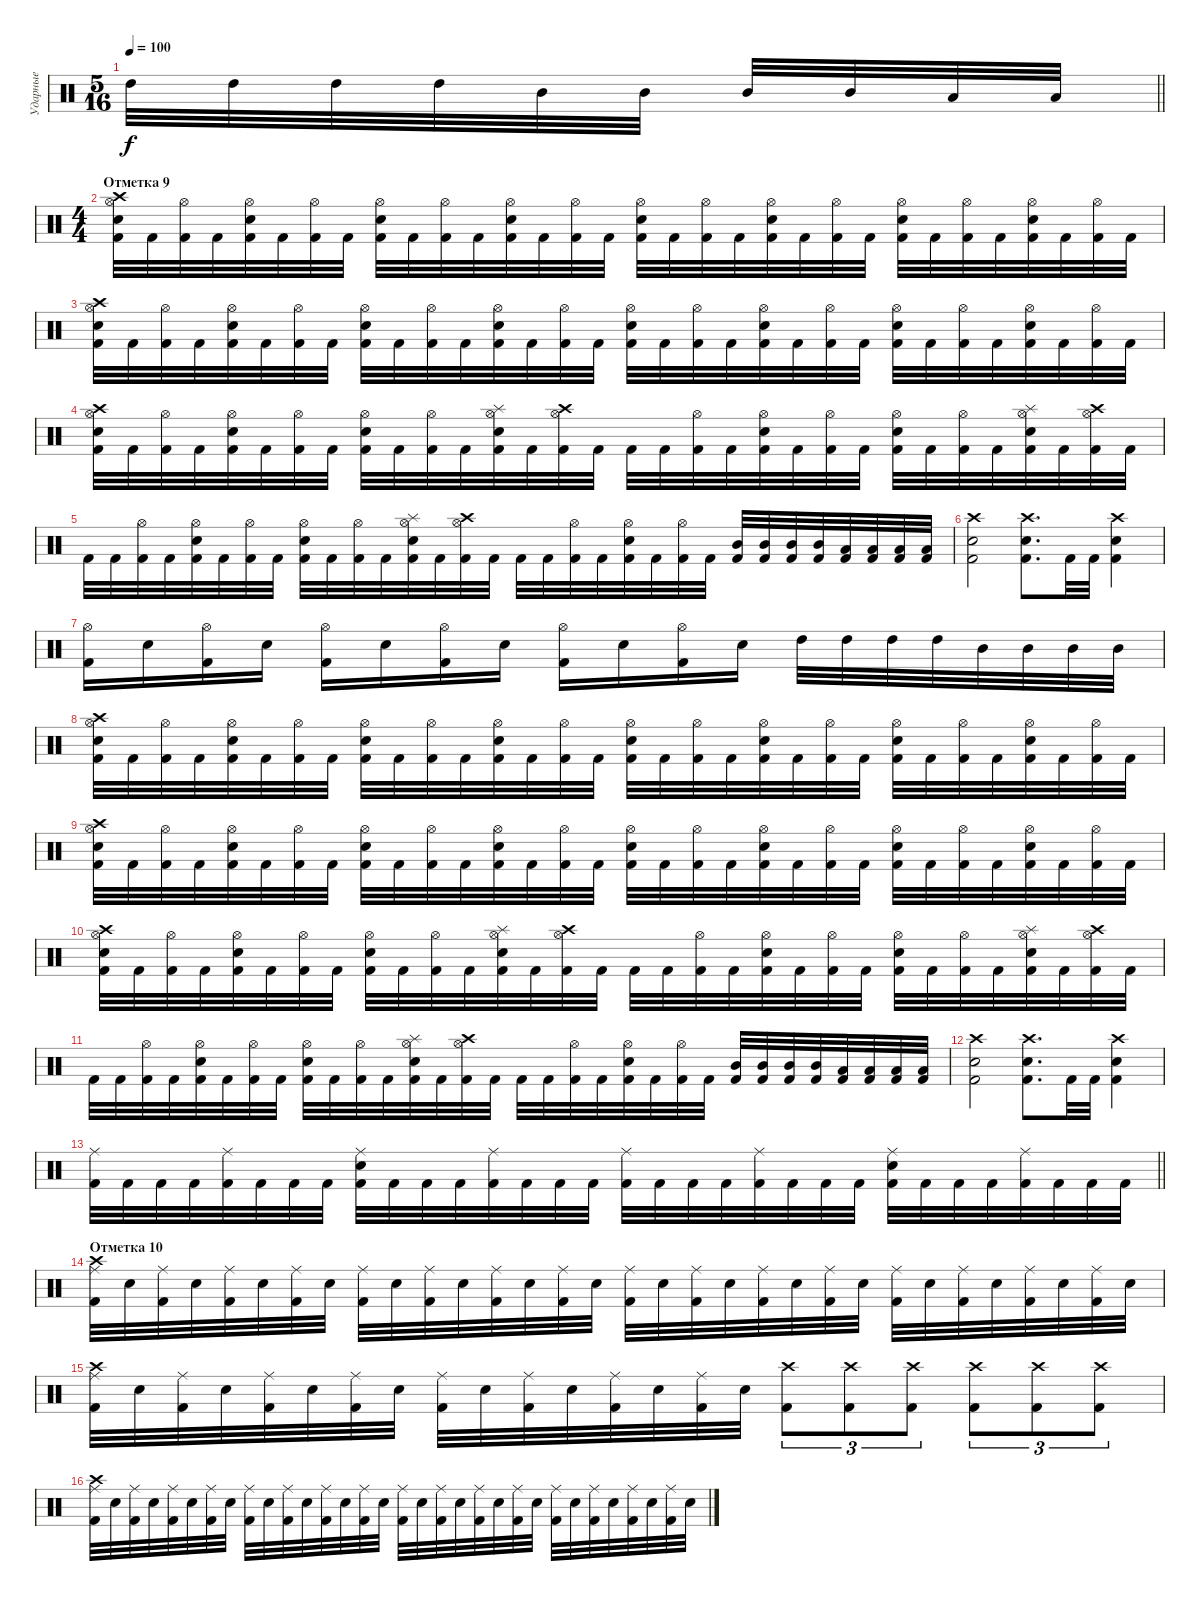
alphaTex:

\track ("Ударные" "Ударные") {instrument percussion}
\staff {score}
\articulation defaults
\ts (5 16)
\tempo 100
\clef neutral
\barLineRight lightlight
\ks c "High Tom (hit)".32{dy f} "High Tom (hit)".32 "High Tom (hit)".32 "High Tom (hit)".32 "Mid Tom (hit)".32 "Mid Tom (hit)".32 "Mid Tom (hit)".32 "Mid Tom (hit)".32 "Low Tom (hit)".32 "Low Tom (hit)".32
|
\ts (4 4)
\section ("" "Отметка 9")
("Kick (hit) 2" "Electric Snare (hit)" "Hi-Hat (open)" "Crash high (hit)").32 "Kick (hit) 2".32 ("Kick (hit) 2" "Hi-Hat (open)").32 "Kick (hit) 2".32 ("Kick (hit) 2" "Electric Snare (hit)" "Hi-Hat (open)").32 "Kick (hit) 2".32 ("Kick (hit) 2" "Hi-Hat (open)").32 "Kick (hit) 2".32 ("Kick (hit) 2" "Electric Snare (hit)" "Hi-Hat (open)").32 "Kick (hit) 2".32 ("Kick (hit) 2" "Hi-Hat (open)").32 "Kick (hit) 2".32 ("Kick (hit) 2" "Electric Snare (hit)" "Hi-Hat (open)").32 "Kick (hit) 2".32 ("Kick (hit) 2" "Hi-Hat (open)").32 "Kick (hit) 2".32 ("Kick (hit) 2" "Electric Snare (hit)" "Hi-Hat (open)").32 "Kick (hit) 2".32 ("Kick (hit) 2" "Hi-Hat (open)").32 "Kick (hit) 2".32 ("Kick (hit) 2" "Electric Snare (hit)" "Hi-Hat (open)").32 "Kick (hit) 2".32 ("Kick (hit) 2" "Hi-Hat (open)").32 "Kick (hit) 2".32 ("Kick (hit) 2" "Electric Snare (hit)" "Hi-Hat (open)").32 "Kick (hit) 2".32 ("Kick (hit) 2" "Hi-Hat (open)").32 "Kick (hit) 2".32 ("Kick (hit) 2" "Electric Snare (hit)" "Hi-Hat (open)").32 "Kick (hit) 2".32 ("Kick (hit) 2" "Hi-Hat (open)").32 "Kick (hit) 2".32 |
("Kick (hit) 2" "Electric Snare (hit)" "Hi-Hat (open)" "Crash high (hit)").32 "Kick (hit) 2".32 ("Kick (hit) 2" "Hi-Hat (open)").32 "Kick (hit) 2".32 ("Kick (hit) 2" "Electric Snare (hit)" "Hi-Hat (open)").32 "Kick (hit) 2".32 ("Kick (hit) 2" "Hi-Hat (open)").32 "Kick (hit) 2".32 ("Kick (hit) 2" "Electric Snare (hit)" "Hi-Hat (open)").32 "Kick (hit) 2".32 ("Kick (hit) 2" "Hi-Hat (open)").32 "Kick (hit) 2".32 ("Kick (hit) 2" "Electric Snare (hit)" "Hi-Hat (open)").32 "Kick (hit) 2".32 ("Kick (hit) 2" "Hi-Hat (open)").32 "Kick (hit) 2".32 ("Kick (hit) 2" "Electric Snare (hit)" "Hi-Hat (open)").32 "Kick (hit) 2".32 ("Kick (hit) 2" "Hi-Hat (open)").32 "Kick (hit) 2".32 ("Kick (hit) 2" "Electric Snare (hit)" "Hi-Hat (open)").32 "Kick (hit) 2".32 ("Kick (hit) 2" "Hi-Hat (open)").32 "Kick (hit) 2".32 ("Kick (hit) 2" "Electric Snare (hit)" "Hi-Hat (open)").32 "Kick (hit) 2".32 ("Kick (hit) 2" "Hi-Hat (open)").32 "Kick (hit) 2".32 ("Kick (hit) 2" "Electric Snare (hit)" "Hi-Hat (open)").32 "Kick (hit) 2".32 ("Kick (hit) 2" "Hi-Hat (open)").32 "Kick (hit) 2".32 |
("Kick (hit) 2" "Electric Snare (hit)" "Hi-Hat (open)" "Crash high (hit)").32 "Kick (hit) 2".32 ("Kick (hit) 2" "Hi-Hat (open)").32 "Kick (hit) 2".32 ("Kick (hit) 2" "Electric Snare (hit)" "Hi-Hat (open)").32 "Kick (hit) 2".32 ("Kick (hit) 2" "Hi-Hat (open)").32 "Kick (hit) 2".32 ("Kick (hit) 2" "Electric Snare (hit)" "Hi-Hat (open)").32 "Kick (hit) 2".32 ("Kick (hit) 2" "Hi-Hat (open)").32 "Kick (hit) 2".32 ("Kick (hit) 2" "Electric Snare (hit)" "Hi-Hat (open)" "Splash (hit)").32 "Kick (hit) 2".32 ("Kick (hit) 2" "Hi-Hat (open)" "Crash high (hit)").32 "Kick (hit) 2".32 "Kick (hit) 2".32 "Kick (hit) 2".32 ("Kick (hit) 2" "Hi-Hat (open)").32 "Kick (hit) 2".32 ("Kick (hit) 2" "Electric Snare (hit)" "Hi-Hat (open)").32 "Kick (hit) 2".32 ("Kick (hit) 2" "Hi-Hat (open)").32 "Kick (hit) 2".32 ("Kick (hit) 2" "Electric Snare (hit)" "Hi-Hat (open)").32 "Kick (hit) 2".32 ("Kick (hit) 2" "Hi-Hat (open)").32 "Kick (hit) 2".32 ("Kick (hit) 2" "Electric Snare (hit)" "Hi-Hat (open)" "Splash (hit)").32 "Kick (hit) 2".32 ("Kick (hit) 2" "Hi-Hat (open)" "Crash high (hit)").32 "Kick (hit) 2".32 |
"Kick (hit) 2".32 "Kick (hit) 2".32 ("Kick (hit) 2" "Hi-Hat (open)").32 "Kick (hit) 2".32 ("Kick (hit) 2" "Electric Snare (hit)" "Hi-Hat (open)").32 "Kick (hit) 2".32 ("Kick (hit) 2" "Hi-Hat (open)").32 "Kick (hit) 2".32 ("Kick (hit) 2" "Electric Snare (hit)" "Hi-Hat (open)").32 "Kick (hit) 2".32 ("Kick (hit) 2" "Hi-Hat (open)").32 "Kick (hit) 2".32 ("Kick (hit) 2" "Electric Snare (hit)" "Hi-Hat (open)" "Splash (hit)").32 "Kick (hit) 2".32 ("Kick (hit) 2" "Hi-Hat (open)" "Crash high (hit)").32 "Kick (hit) 2".32 "Kick (hit) 2".32 "Kick (hit) 2".32 ("Kick (hit) 2" "Hi-Hat (open)").32 "Kick (hit) 2".32 ("Kick (hit) 2" "Electric Snare (hit)" "Hi-Hat (open)").32 "Kick (hit) 2".32 ("Kick (hit) 2" "Hi-Hat (open)").32 "Kick (hit) 2".32 ("Kick (hit) 2" "Mid Tom (hit)").32 ("Kick (hit) 2" "Mid Tom (hit)").32 ("Kick (hit) 2" "Mid Tom (hit)").32 ("Kick (hit) 2" "Mid Tom (hit)").32 ("Kick (hit) 2" "Low Tom (hit)").32 ("Kick (hit) 2" "Low Tom (hit)").32 ("Kick (hit) 2" "Low Tom (hit)").32 ("Kick (hit) 2" "Low Tom (hit)").32 |
("Crash high (hit)" "Electric Snare (hit)" "Kick (hit) 2").2 ("Crash high (hit)" "Electric Snare (hit)" "Kick (hit) 2").8{d} "Kick (hit) 2".32 "Kick (hit) 2".32 ("Electric Snare (hit)" "Crash high (hit)" "Kick (hit) 2").4 |
("Hi-Hat (open)" "Kick (hit) 2").16 "Electric Snare (hit)".16 ("Hi-Hat (open)" "Kick (hit) 2").16 "Electric Snare (hit)".16 ("Hi-Hat (open)" "Kick (hit) 2").16 "Electric Snare (hit)".16 ("Hi-Hat (open)" "Kick (hit) 2").16 "Electric Snare (hit)".16 ("Hi-Hat (open)" "Kick (hit) 2").16 "Electric Snare (hit)".16 ("Hi-Hat (open)" "Kick (hit) 2").16 "Electric Snare (hit)".16 "High Tom (hit)".32 "High Tom (hit)".32 "High Tom (hit)".32 "High Tom (hit)".32 "Mid Tom (hit)".32 "Mid Tom (hit)".32 "Mid Tom (hit)".32 "Mid Tom (hit)".32 |
("Kick (hit) 2" "Electric Snare (hit)" "Hi-Hat (open)" "Crash high (hit)").32 "Kick (hit) 2".32 ("Kick (hit) 2" "Hi-Hat (open)").32 "Kick (hit) 2".32 ("Kick (hit) 2" "Electric Snare (hit)" "Hi-Hat (open)").32 "Kick (hit) 2".32 ("Kick (hit) 2" "Hi-Hat (open)").32 "Kick (hit) 2".32 ("Kick (hit) 2" "Electric Snare (hit)" "Hi-Hat (open)").32 "Kick (hit) 2".32 ("Kick (hit) 2" "Hi-Hat (open)").32 "Kick (hit) 2".32 ("Kick (hit) 2" "Electric Snare (hit)" "Hi-Hat (open)").32 "Kick (hit) 2".32 ("Kick (hit) 2" "Hi-Hat (open)").32 "Kick (hit) 2".32 ("Kick (hit) 2" "Electric Snare (hit)" "Hi-Hat (open)").32 "Kick (hit) 2".32 ("Kick (hit) 2" "Hi-Hat (open)").32 "Kick (hit) 2".32 ("Kick (hit) 2" "Electric Snare (hit)" "Hi-Hat (open)").32 "Kick (hit) 2".32 ("Kick (hit) 2" "Hi-Hat (open)").32 "Kick (hit) 2".32 ("Kick (hit) 2" "Electric Snare (hit)" "Hi-Hat (open)").32 "Kick (hit) 2".32 ("Kick (hit) 2" "Hi-Hat (open)").32 "Kick (hit) 2".32 ("Kick (hit) 2" "Electric Snare (hit)" "Hi-Hat (open)").32 "Kick (hit) 2".32 ("Kick (hit) 2" "Hi-Hat (open)").32 "Kick (hit) 2".32 |
("Kick (hit) 2" "Electric Snare (hit)" "Hi-Hat (open)" "Crash high (hit)").32 "Kick (hit) 2".32 ("Kick (hit) 2" "Hi-Hat (open)").32 "Kick (hit) 2".32 ("Kick (hit) 2" "Electric Snare (hit)" "Hi-Hat (open)").32 "Kick (hit) 2".32 ("Kick (hit) 2" "Hi-Hat (open)").32 "Kick (hit) 2".32 ("Kick (hit) 2" "Electric Snare (hit)" "Hi-Hat (open)").32 "Kick (hit) 2".32 ("Kick (hit) 2" "Hi-Hat (open)").32 "Kick (hit) 2".32 ("Kick (hit) 2" "Electric Snare (hit)" "Hi-Hat (open)").32 "Kick (hit) 2".32 ("Kick (hit) 2" "Hi-Hat (open)").32 "Kick (hit) 2".32 ("Kick (hit) 2" "Electric Snare (hit)" "Hi-Hat (open)").32 "Kick (hit) 2".32 ("Kick (hit) 2" "Hi-Hat (open)").32 "Kick (hit) 2".32 ("Kick (hit) 2" "Electric Snare (hit)" "Hi-Hat (open)").32 "Kick (hit) 2".32 ("Kick (hit) 2" "Hi-Hat (open)").32 "Kick (hit) 2".32 ("Kick (hit) 2" "Electric Snare (hit)" "Hi-Hat (open)").32 "Kick (hit) 2".32 ("Kick (hit) 2" "Hi-Hat (open)").32 "Kick (hit) 2".32 ("Kick (hit) 2" "Electric Snare (hit)" "Hi-Hat (open)").32 "Kick (hit) 2".32 ("Kick (hit) 2" "Hi-Hat (open)").32 "Kick (hit) 2".32 |
("Kick (hit) 2" "Electric Snare (hit)" "Hi-Hat (open)" "Crash high (hit)").32 "Kick (hit) 2".32 ("Kick (hit) 2" "Hi-Hat (open)").32 "Kick (hit) 2".32 ("Kick (hit) 2" "Electric Snare (hit)" "Hi-Hat (open)").32 "Kick (hit) 2".32 ("Kick (hit) 2" "Hi-Hat (open)").32 "Kick (hit) 2".32 ("Kick (hit) 2" "Electric Snare (hit)" "Hi-Hat (open)").32 "Kick (hit) 2".32 ("Kick (hit) 2" "Hi-Hat (open)").32 "Kick (hit) 2".32 ("Kick (hit) 2" "Electric Snare (hit)" "Hi-Hat (open)" "Splash (hit)").32 "Kick (hit) 2".32 ("Kick (hit) 2" "Hi-Hat (open)" "Crash high (hit)").32 "Kick (hit) 2".32 "Kick (hit) 2".32 "Kick (hit) 2".32 ("Kick (hit) 2" "Hi-Hat (open)").32 "Kick (hit) 2".32 ("Kick (hit) 2" "Electric Snare (hit)" "Hi-Hat (open)").32 "Kick (hit) 2".32 ("Kick (hit) 2" "Hi-Hat (open)").32 "Kick (hit) 2".32 ("Kick (hit) 2" "Electric Snare (hit)" "Hi-Hat (open)").32 "Kick (hit) 2".32 ("Kick (hit) 2" "Hi-Hat (open)").32 "Kick (hit) 2".32 ("Kick (hit) 2" "Electric Snare (hit)" "Hi-Hat (open)" "Splash (hit)").32 "Kick (hit) 2".32 ("Kick (hit) 2" "Hi-Hat (open)" "Crash high (hit)").32 "Kick (hit) 2".32 |
"Kick (hit) 2".32 "Kick (hit) 2".32 ("Kick (hit) 2" "Hi-Hat (open)").32 "Kick (hit) 2".32 ("Kick (hit) 2" "Electric Snare (hit)" "Hi-Hat (open)").32 "Kick (hit) 2".32 ("Kick (hit) 2" "Hi-Hat (open)").32 "Kick (hit) 2".32 ("Kick (hit) 2" "Electric Snare (hit)" "Hi-Hat (open)").32 "Kick (hit) 2".32 ("Kick (hit) 2" "Hi-Hat (open)").32 "Kick (hit) 2".32 ("Kick (hit) 2" "Electric Snare (hit)" "Hi-Hat (open)" "Splash (hit)").32 "Kick (hit) 2".32 ("Kick (hit) 2" "Hi-Hat (open)" "Crash high (hit)").32 "Kick (hit) 2".32 "Kick (hit) 2".32 "Kick (hit) 2".32 ("Kick (hit) 2" "Hi-Hat (open)").32 "Kick (hit) 2".32 ("Kick (hit) 2" "Electric Snare (hit)" "Hi-Hat (open)").32 "Kick (hit) 2".32 ("Kick (hit) 2" "Hi-Hat (open)").32 "Kick (hit) 2".32 ("Kick (hit) 2" "Mid Tom (hit)").32 ("Kick (hit) 2" "Mid Tom (hit)").32 ("Kick (hit) 2" "Mid Tom (hit)").32 ("Kick (hit) 2" "Mid Tom (hit)").32 ("Kick (hit) 2" "Low Tom (hit)").32 ("Kick (hit) 2" "Low Tom (hit)").32 ("Kick (hit) 2" "Low Tom (hit)").32 ("Kick (hit) 2" "Low Tom (hit)").32 |
("Crash high (hit)" "Electric Snare (hit)" "Kick (hit) 2").2 ("Crash high (hit)" "Electric Snare (hit)" "Kick (hit) 2").8{d} "Kick (hit) 2".32 "Kick (hit) 2".32 ("Electric Snare (hit)" "Crash high (hit)" "Kick (hit) 2").4 |
\barLineRight lightlight
("Kick (hit) 2" "Ride (middle)").32 "Kick (hit) 2".32 "Kick (hit) 2".32 "Kick (hit) 2".32 ("Kick (hit) 2" "Ride (middle)").32 "Kick (hit) 2".32 "Kick (hit) 2".32 "Kick (hit) 2".32 ("Kick (hit) 2" "Electric Snare (hit)" "Ride (middle)").32 "Kick (hit) 2".32 "Kick (hit) 2".32 "Kick (hit) 2".32 ("Kick (hit) 2" "Ride (middle)").32 "Kick (hit) 2".32 "Kick (hit) 2".32 "Kick (hit) 2".32 ("Kick (hit) 2" "Ride (middle)").32 "Kick (hit) 2".32 "Kick (hit) 2".32 "Kick (hit) 2".32 ("Kick (hit) 2" "Ride (middle)").32 "Kick (hit) 2".32 "Kick (hit) 2".32 "Kick (hit) 2".32 ("Kick (hit) 2" "Electric Snare (hit)" "Ride (middle)").32 "Kick (hit) 2".32 "Kick (hit) 2".32 "Kick (hit) 2".32 ("Kick (hit) 2" "Ride (middle)").32 "Kick (hit) 2".32 "Kick (hit) 2".32 "Kick (hit) 2".32 |
\section ("" "Отметка 10")
("Kick (hit) 2" "Crash high (hit)" "Ride (middle)").32 "Electric Snare (hit)".32 ("Kick (hit) 2" "Ride (middle)").32 "Electric Snare (hit)".32 ("Kick (hit) 2" "Ride (middle)").32 "Electric Snare (hit)".32 ("Kick (hit) 2" "Ride (middle)").32 "Electric Snare (hit)".32 ("Kick (hit) 2" "Ride (middle)").32 "Electric Snare (hit)".32 ("Kick (hit) 2" "Ride (middle)").32 "Electric Snare (hit)".32 ("Kick (hit) 2" "Ride (middle)").32 "Electric Snare (hit)".32 ("Kick (hit) 2" "Ride (middle)").32 "Electric Snare (hit)".32 ("Kick (hit) 2" "Ride (middle)").32 "Electric Snare (hit)".32 ("Kick (hit) 2" "Ride (middle)").32 "Electric Snare (hit)".32 ("Kick (hit) 2" "Ride (middle)").32 "Electric Snare (hit)".32 ("Kick (hit) 2" "Ride (middle)").32 "Electric Snare (hit)".32 ("Kick (hit) 2" "Ride (middle)").32 "Electric Snare (hit)".32 ("Kick (hit) 2" "Ride (middle)").32 "Electric Snare (hit)".32 ("Kick (hit) 2" "Ride (middle)").32 "Electric Snare (hit)".32 ("Kick (hit) 2" "Ride (middle)").32 "Electric Snare (hit)".32 |
("Kick (hit) 2" "Crash high (hit)" "Ride (middle)").32 "Electric Snare (hit)".32 ("Kick (hit) 2" "Ride (middle)").32 "Electric Snare (hit)".32 ("Kick (hit) 2" "Ride (middle)").32 "Electric Snare (hit)".32 ("Kick (hit) 2" "Ride (middle)").32 "Electric Snare (hit)".32 ("Kick (hit) 2" "Ride (middle)").32 "Electric Snare (hit)".32 ("Kick (hit) 2" "Ride (middle)").32 "Electric Snare (hit)".32 ("Kick (hit) 2" "Ride (middle)").32 "Electric Snare (hit)".32 ("Kick (hit) 2" "Ride (middle)").32 "Electric Snare (hit)".32 ("Kick (hit) 2" "Crash high (hit)").8{tu (3 2)} ("Kick (hit) 2" "Crash high (hit)").8{tu (3 2)} ("Kick (hit) 2" "Crash high (hit)").8{tu (3 2)} ("Kick (hit) 2" "Crash high (hit)").8{tu (3 2)} ("Kick (hit) 2" "Crash high (hit)").8{tu (3 2)} ("Kick (hit) 2" "Crash high (hit)").8{tu (3 2)} |
("Kick (hit) 2" "Crash high (hit)" "Ride (middle)").32 "Electric Snare (hit)".32 ("Kick (hit) 2" "Ride (middle)").32 "Electric Snare (hit)".32 ("Kick (hit) 2" "Ride (middle)").32 "Electric Snare (hit)".32 ("Kick (hit) 2" "Ride (middle)").32 "Electric Snare (hit)".32 ("Kick (hit) 2" "Ride (middle)").32 "Electric Snare (hit)".32 ("Kick (hit) 2" "Ride (middle)").32 "Electric Snare (hit)".32 ("Kick (hit) 2" "Ride (middle)").32 "Electric Snare (hit)".32 ("Kick (hit) 2" "Ride (middle)").32 "Electric Snare (hit)".32 ("Kick (hit) 2" "Ride (middle)").32 "Electric Snare (hit)".32 ("Kick (hit) 2" "Ride (middle)").32 "Electric Snare (hit)".32 ("Kick (hit) 2" "Ride (middle)").32 "Electric Snare (hit)".32 ("Kick (hit) 2" "Ride (middle)").32 "Electric Snare (hit)".32 ("Kick (hit) 2" "Ride (middle)").32 "Electric Snare (hit)".32 ("Kick (hit) 2" "Ride (middle)").32 "Electric Snare (hit)".32 ("Kick (hit) 2" "Ride (middle)").32 "Electric Snare (hit)".32 ("Kick (hit) 2" "Ride (middle)").32 "Electric Snare (hit)".32
